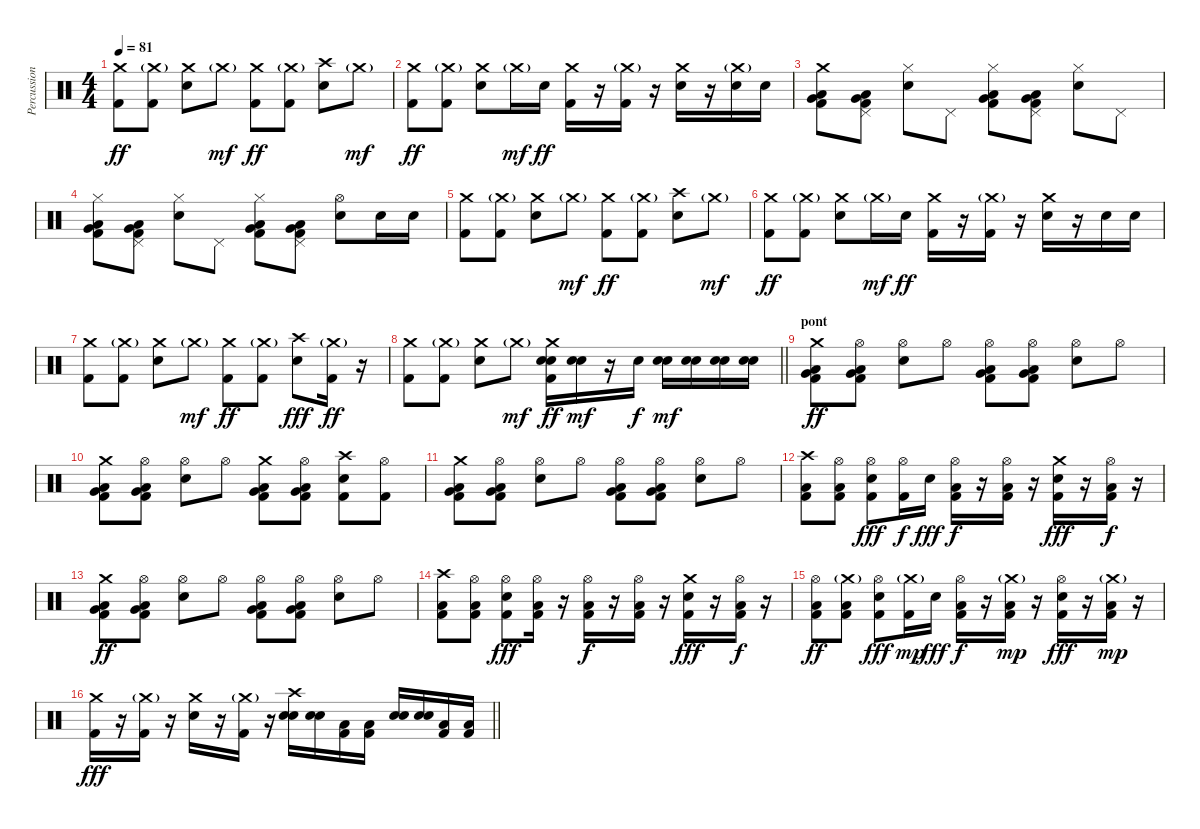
\track ("Percussions" "Percussion") {instrument percussion bank 16}
\staff {score}
\articulation defaults
\ts (4 4)
\tempo 81
\clef neutral
\ks c
("Crash medium (hit)" "Kick (hit) 2").8{dy ff} ("Crash medium (hit)"{g} "Kick (hit) 2").8 ("Crash medium (hit)" "Electric Snare (hit)").8 "Crash medium (hit)"{g}.8{dy mf} ("Crash medium (hit)" "Kick (hit) 2").8{dy ff} ("Crash medium (hit)"{g} "Kick (hit) 2").8 ("Crash high (hit)" "Electric Snare (hit)").8 "Crash medium (hit)"{g}.8{dy mf} |
("Crash medium (hit)" "Kick (hit) 2").8{dy ff} ("Crash medium (hit)"{g} "Kick (hit) 2").8 ("Crash medium (hit)" "Electric Snare (hit)").8 "Crash medium (hit)"{g}.16{dy mf} "Electric Snare (hit)".16{dy ff} ("Crash medium (hit)" "Kick (hit) 2").16 r.16 ("Crash medium (hit)"{g} "Kick (hit) 2").16 r.16 ("Crash medium (hit)" "Electric Snare (hit)").16 r.16 ("Crash medium (hit)"{g} "Electric Snare (hit)").16 "Electric Snare (hit)".16 |
("Crash medium (hit)" "Low Tom (hit)" "Very Low Tom (hit)" "Kick (hit) 2").8 ("Pedal Hi-Hat (hit)" "Low Tom (hit)" "Very Low Tom (hit)" "Kick (hit) 2").8 ("Hi-Hat (closed)" "Electric Snare (hit)").8 "Pedal Hi-Hat (hit)".8 ("Hi-Hat (closed)" "Low Tom (hit)" "Very Low Tom (hit)" "Kick (hit) 2").8 ("Pedal Hi-Hat (hit)" "Low Tom (hit)" "Very Low Tom (hit)" "Kick (hit) 2").8 ("Hi-Hat (closed)" "Electric Snare (hit)").8 "Pedal Hi-Hat (hit)".8 |
("Hi-Hat (closed)" "Low Tom (hit)" "Very Low Tom (hit)" "Kick (hit) 2").8 ("Pedal Hi-Hat (hit)" "Low Tom (hit)" "Very Low Tom (hit)" "Kick (hit) 2").8 ("Hi-Hat (closed)" "Electric Snare (hit)").8 "Pedal Hi-Hat (hit)".8 ("Hi-Hat (closed)" "Low Tom (hit)" "Very Low Tom (hit)" "Kick (hit) 2").8 ("Pedal Hi-Hat (hit)" "Low Tom (hit)" "Very Low Tom (hit)" "Kick (hit) 2").8 ("Hi-Hat (open)" "Electric Snare (hit)").8 "Electric Snare (hit)".16 "Electric Snare (hit)".16 |
("Crash medium (hit)" "Kick (hit) 2").8 ("Crash medium (hit)"{g} "Kick (hit) 2").8 ("Crash medium (hit)" "Electric Snare (hit)").8 "Crash medium (hit)"{g}.8{dy mf} ("Crash medium (hit)" "Kick (hit) 2").8{dy ff} ("Crash medium (hit)"{g} "Kick (hit) 2").8 ("Crash high (hit)" "Electric Snare (hit)").8 "Crash medium (hit)"{g}.8{dy mf} |
("Crash medium (hit)" "Kick (hit) 2").8{dy ff} ("Crash medium (hit)"{g} "Kick (hit) 2").8 ("Crash medium (hit)" "Electric Snare (hit)").8 "Crash medium (hit)"{g}.16{dy mf} "Electric Snare (hit)".16{dy ff} ("Crash medium (hit)" "Kick (hit) 2").16 r.16 ("Crash medium (hit)"{g} "Kick (hit) 2").16 r.16 ("Crash medium (hit)" "Electric Snare (hit)").16 r.16 "Electric Snare (hit)".16 "Electric Snare (hit)".16 |
("Crash medium (hit)" "Kick (hit) 2").8 ("Crash medium (hit)"{g} "Kick (hit) 2").8 ("Crash medium (hit)" "Electric Snare (hit)").8 "Crash medium (hit)"{g}.8{dy mf} ("Crash medium (hit)" "Kick (hit) 2").8{dy ff} ("Crash medium (hit)"{g} "Kick (hit) 2").8 ("Crash high (hit)" "Electric Snare (hit)").8{dy fff} ("Crash medium (hit)"{g} "Kick (hit) 2").16{dy ff} r.16 |
\barLineRight lightlight
("Crash medium (hit)" "Kick (hit) 2").8 ("Crash medium (hit)"{g} "Kick (hit) 2").8 ("Crash medium (hit)" "Electric Snare (hit)").8 "Crash medium (hit)"{g}.8{dy mf} ("Crash medium (hit)" "Electric Snare (hit)" "Electric Snare (hit)" "Kick (hit) 2").16{dy ff} ("Electric Snare (hit)" "Electric Snare (hit)").16{dy mf} r.16 "Electric Snare (hit)".16{dy f} ("Electric Snare (hit)" "Electric Snare (hit)").16{dy mf} ("Electric Snare (hit)" "Electric Snare (hit)").16 ("Electric Snare (hit)" "Electric Snare (hit)").16 ("Electric Snare (hit)" "Electric Snare (hit)").16 |
\section ("" "pont")
("Crash medium (hit)" "Low Tom (hit)" "Very Low Tom (hit)" "Kick (hit) 2").8{dy ff} ("Hi-Hat (open)" "Low Tom (hit)" "Very Low Tom (hit)" "Kick (hit) 2").8 ("Hi-Hat (open)" "Electric Snare (hit)").8 "Hi-Hat (open)".8 ("Hi-Hat (open)" "Low Tom (hit)" "Very Low Tom (hit)" "Kick (hit) 2").8 ("Hi-Hat (open)" "Low Tom (hit)" "Very Low Tom (hit)" "Kick (hit) 2").8 ("Hi-Hat (open)" "Electric Snare (hit)").8 "Hi-Hat (open)".8 |
("Crash medium (hit)" "Low Tom (hit)" "Very Low Tom (hit)" "Kick (hit) 2").8 ("Hi-Hat (open)" "Low Tom (hit)" "Very Low Tom (hit)" "Kick (hit) 2").8 ("Hi-Hat (open)" "Electric Snare (hit)").8 "Hi-Hat (open)".8 ("Crash medium (hit)" "Low Tom (hit)" "Very Low Tom (hit)" "Kick (hit) 2").8 ("Hi-Hat (open)" "Low Tom (hit)" "Very Low Tom (hit)" "Kick (hit) 2").8 ("Crash high (hit)" "Electric Snare (hit)" "Kick (hit) 2").8 ("Hi-Hat (open)" "Kick (hit) 2").8 |
("Crash medium (hit)" "Low Tom (hit)" "Very Low Tom (hit)" "Kick (hit) 2").8 ("Hi-Hat (open)" "Low Tom (hit)" "Very Low Tom (hit)" "Kick (hit) 2").8 ("Hi-Hat (open)" "Electric Snare (hit)").8 "Hi-Hat (open)".8 ("Hi-Hat (open)" "Low Tom (hit)" "Very Low Tom (hit)" "Kick (hit) 2").8 ("Hi-Hat (open)" "Low Tom (hit)" "Very Low Tom (hit)" "Kick (hit) 2").8 ("Hi-Hat (open)" "Electric Snare (hit)").8 "Hi-Hat (open)".8 |
("Crash high (hit)" "Low Tom (hit)" "Kick (hit) 2").8 ("Hi-Hat (open)" "Low Tom (hit)" "Kick (hit) 2").8 ("Hi-Hat (open)" "Electric Snare (hit)" "Kick (hit) 2").8{dy fff} ("Hi-Hat (open)" "Kick (hit) 2").16{dy f} "Electric Snare (hit)".16{dy fff} ("Hi-Hat (open)" "Low Tom (hit)" "Kick (hit) 2").16{dy f} r.16 ("Hi-Hat (open)" "Low Tom (hit)" "Kick (hit) 2").16 r.16 ("Crash medium (hit)" "Electric Snare (hit)" "Kick (hit) 2").16{dy fff} r.16 ("Hi-Hat (open)" "Low Tom (hit)" "Kick (hit) 2").16{dy f} r.16 |
("Crash medium (hit)" "Low Tom (hit)" "Very Low Tom (hit)" "Kick (hit) 2").8{dy ff} ("Hi-Hat (open)" "Low Tom (hit)" "Very Low Tom (hit)" "Kick (hit) 2").8 ("Hi-Hat (open)" "Electric Snare (hit)").8 "Hi-Hat (open)".8 ("Hi-Hat (open)" "Low Tom (hit)" "Very Low Tom (hit)" "Kick (hit) 2").8 ("Hi-Hat (open)" "Low Tom (hit)" "Very Low Tom (hit)" "Kick (hit) 2").8 ("Hi-Hat (open)" "Electric Snare (hit)").8 "Hi-Hat (open)".8 |
("Crash high (hit)" "Low Tom (hit)" "Kick (hit) 2").8 ("Hi-Hat (open)" "Low Tom (hit)" "Kick (hit) 2").8 ("Hi-Hat (open)" "Electric Snare (hit)" "Kick (hit) 2").8{dy fff} ("Hi-Hat (open)" "Low Tom (hit)" "Kick (hit) 2").16 r.16 ("Hi-Hat (open)" "Low Tom (hit)" "Kick (hit) 2").16{dy f} r.16 ("Hi-Hat (open)" "Low Tom (hit)" "Kick (hit) 2").16 r.16 ("Crash medium (hit)" "Electric Snare (hit)" "Kick (hit) 2").16{dy fff} r.16 ("Hi-Hat (open)" "Low Tom (hit)" "Kick (hit) 2").16{dy f} r.16 |
("Hi-Hat (open)" "Low Tom (hit)" "Kick (hit) 2").8{dy ff} ("Crash medium (hit)"{g} "Low Tom (hit)" "Kick (hit) 2").8 ("Hi-Hat (open)" "Electric Snare (hit)" "Kick (hit) 2").8{dy fff} ("Crash medium (hit)"{g} "Kick (hit) 2").16{dy mp} "Electric Snare (hit)".16{dy fff} ("Hi-Hat (open)" "Low Tom (hit)" "Kick (hit) 2").16{dy f} r.16 ("Crash medium (hit)"{g} "Low Tom (hit)" "Kick (hit) 2").16{dy mp} r.16 ("Hi-Hat (open)" "Electric Snare (hit)" "Kick (hit) 2").16{dy fff} r.16 ("Crash medium (hit)"{g} "Low Tom (hit)" "Kick (hit) 2").16{dy mp} r.16 |
\barLineRight lightlight
("Crash medium (hit)" "Kick (hit) 2").16{dy fff} r.16 ("Crash medium (hit)"{g} "Kick (hit) 2").16 r.16 ("Crash medium (hit)" "Electric Snare (hit)").16 r.16 ("Crash medium (hit)"{g} "Kick (hit) 2").16 r.16 ("Crash high (hit)" "Electric Snare (hit)" "Electric Snare (hit)").16 ("Electric Snare (hit)" "Electric Snare (hit)").16 ("Kick (hit) 2" "Low Floor Tom (hit)").16 ("Kick (hit) 2" "Low Floor Tom (hit)").16 ("Electric Snare (hit)" "Electric Snare (hit)").16 ("Electric Snare (hit)" "Electric Snare (hit)").16 ("Kick (hit) 2" "Low Floor Tom (hit)").16 ("Kick (hit) 2" "Low Floor Tom (hit)").16
